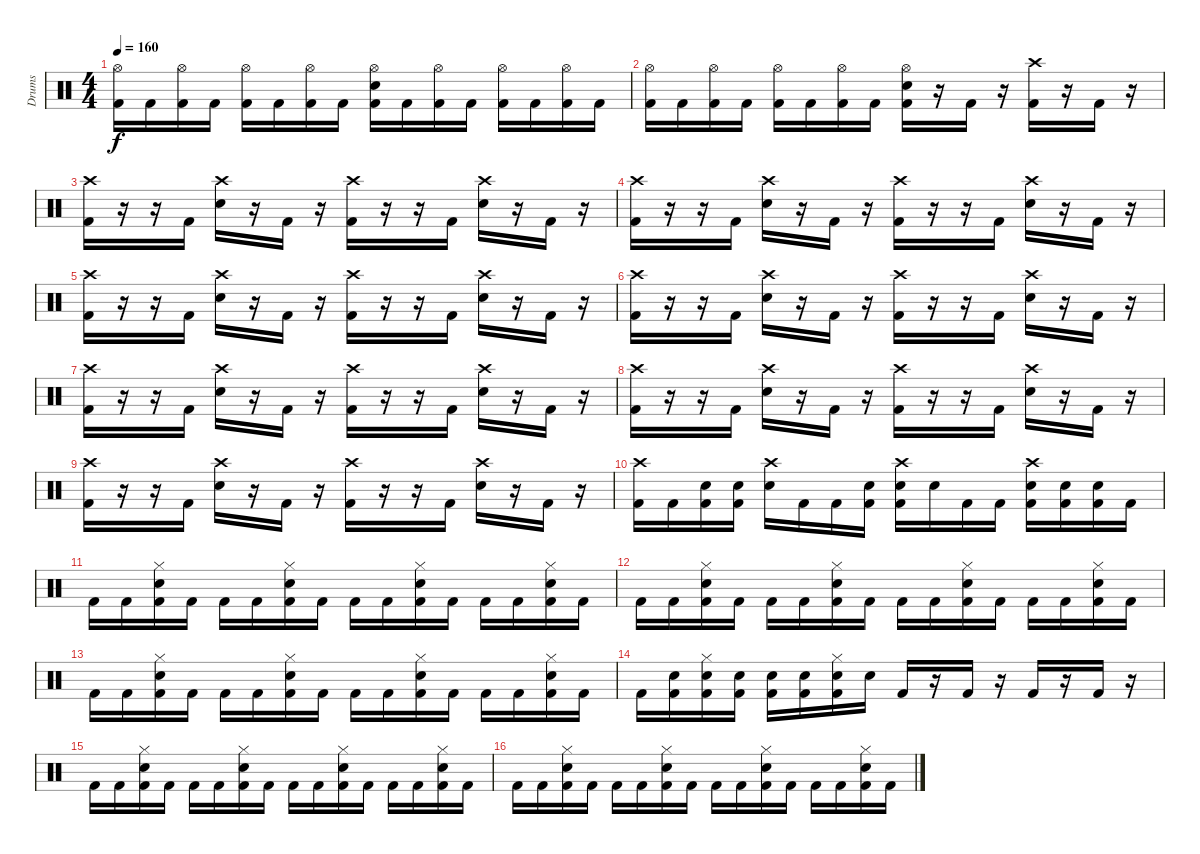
\track ("Drums" "Drums") {instrument percussion}
\staff {score}
\articulation defaults
\ts (4 4)
\tempo 160
\clef neutral
\ks c
("Hi-Hat (open)" "Kick (hit) 2").16{dy f} "Kick (hit) 2".16 ("Hi-Hat (open)" "Kick (hit) 2").16 "Kick (hit) 2".16 ("Hi-Hat (open)" "Kick (hit) 2").16 "Kick (hit) 2".16 ("Hi-Hat (open)" "Kick (hit) 2").16 "Kick (hit) 2".16 ("Hi-Hat (open)" "Electric Snare (hit)" "Kick (hit) 2").16 "Kick (hit) 2".16 ("Hi-Hat (open)" "Kick (hit) 2").16 "Kick (hit) 2".16 ("Hi-Hat (open)" "Kick (hit) 2").16 "Kick (hit) 2".16 ("Hi-Hat (open)" "Kick (hit) 2").16 "Kick (hit) 2".16 |
("Hi-Hat (open)" "Kick (hit) 2").16 "Kick (hit) 2".16 ("Hi-Hat (open)" "Kick (hit) 2").16 "Kick (hit) 2".16 ("Hi-Hat (open)" "Kick (hit) 2").16 "Kick (hit) 2".16 ("Hi-Hat (open)" "Kick (hit) 2").16 "Kick (hit) 2".16 ("Hi-Hat (open)" "Electric Snare (hit)" "Kick (hit) 2").16 r.16 "Kick (hit) 2".16 r.16 ("Crash high (hit)" "Kick (hit) 2").16 r.16 "Kick (hit) 2".16 r.16 |
("Crash high (hit)" "Kick (hit) 2").16 r.16 r.16 "Kick (hit) 2".16 ("Crash high (hit)" "Electric Snare (hit)").16 r.16 "Kick (hit) 2".16 r.16 ("Crash high (hit)" "Kick (hit) 2").16 r.16 r.16 "Kick (hit) 2".16 ("Crash high (hit)" "Electric Snare (hit)").16 r.16 "Kick (hit) 2".16 r.16 |
("Crash high (hit)" "Kick (hit) 2").16 r.16 r.16 "Kick (hit) 2".16 ("Crash high (hit)" "Electric Snare (hit)").16 r.16 "Kick (hit) 2".16 r.16 ("Crash high (hit)" "Kick (hit) 2").16 r.16 r.16 "Kick (hit) 2".16 ("Crash high (hit)" "Electric Snare (hit)").16 r.16 "Kick (hit) 2".16 r.16 |
("Crash high (hit)" "Kick (hit) 2").16 r.16 r.16 "Kick (hit) 2".16 ("Crash high (hit)" "Electric Snare (hit)").16 r.16 "Kick (hit) 2".16 r.16 ("Crash high (hit)" "Kick (hit) 2").16 r.16 r.16 "Kick (hit) 2".16 ("Crash high (hit)" "Electric Snare (hit)").16 r.16 "Kick (hit) 2".16 r.16 |
("Crash high (hit)" "Kick (hit) 2").16 r.16 r.16 "Kick (hit) 2".16 ("Crash high (hit)" "Electric Snare (hit)").16 r.16 "Kick (hit) 2".16 r.16 ("Crash high (hit)" "Kick (hit) 2").16 r.16 r.16 "Kick (hit) 2".16 ("Crash high (hit)" "Electric Snare (hit)").16 r.16 "Kick (hit) 2".16 r.16 |
("Crash high (hit)" "Kick (hit) 2").16 r.16 r.16 "Kick (hit) 2".16 ("Crash high (hit)" "Electric Snare (hit)").16 r.16 "Kick (hit) 2".16 r.16 ("Crash high (hit)" "Kick (hit) 2").16 r.16 r.16 "Kick (hit) 2".16 ("Crash high (hit)" "Electric Snare (hit)").16 r.16 "Kick (hit) 2".16 r.16 |
("Crash high (hit)" "Kick (hit) 2").16 r.16 r.16 "Kick (hit) 2".16 ("Crash high (hit)" "Electric Snare (hit)").16 r.16 "Kick (hit) 2".16 r.16 ("Crash high (hit)" "Kick (hit) 2").16 r.16 r.16 "Kick (hit) 2".16 ("Crash high (hit)" "Electric Snare (hit)").16 r.16 "Kick (hit) 2".16 r.16 |
("Crash high (hit)" "Kick (hit) 2").16 r.16 r.16 "Kick (hit) 2".16 ("Crash high (hit)" "Electric Snare (hit)").16 r.16 "Kick (hit) 2".16 r.16 ("Crash high (hit)" "Kick (hit) 2").16 r.16 r.16 "Kick (hit) 2".16 ("Crash high (hit)" "Electric Snare (hit)").16 r.16 "Kick (hit) 2".16 r.16 |
("Crash high (hit)" "Kick (hit) 2").16 "Kick (hit) 2".16 ("Electric Snare (hit)" "Kick (hit) 2").16 ("Electric Snare (hit)" "Kick (hit) 2").16 ("Crash high (hit)" "Electric Snare (hit)").16 "Kick (hit) 2".16 "Kick (hit) 2".16 ("Electric Snare (hit)" "Kick (hit) 2").16 ("Crash high (hit)" "Electric Snare (hit)" "Kick (hit) 2").16 "Electric Snare (hit)".16 "Kick (hit) 2".16 "Kick (hit) 2".16 ("Crash high (hit)" "Electric Snare (hit)" "Kick (hit) 2").16 ("Electric Snare (hit)" "Kick (hit) 2").16 ("Electric Snare (hit)" "Kick (hit) 2").16 "Kick (hit) 2".16 |
"Kick (hit) 2".16 "Kick (hit) 2".16 ("Hi-Hat (closed)" "Electric Snare (hit)" "Kick (hit) 2").16 "Kick (hit) 2".16 "Kick (hit) 2".16 "Kick (hit) 2".16 ("Hi-Hat (closed)" "Electric Snare (hit)" "Kick (hit) 2").16 "Kick (hit) 2".16 "Kick (hit) 2".16 "Kick (hit) 2".16 ("Hi-Hat (closed)" "Electric Snare (hit)" "Kick (hit) 2").16 "Kick (hit) 2".16 "Kick (hit) 2".16 "Kick (hit) 2".16 ("Hi-Hat (closed)" "Electric Snare (hit)" "Kick (hit) 2").16 "Kick (hit) 2".16 |
"Kick (hit) 2".16 "Kick (hit) 2".16 ("Hi-Hat (closed)" "Electric Snare (hit)" "Kick (hit) 2").16 "Kick (hit) 2".16 "Kick (hit) 2".16 "Kick (hit) 2".16 ("Hi-Hat (closed)" "Electric Snare (hit)" "Kick (hit) 2").16 "Kick (hit) 2".16 "Kick (hit) 2".16 "Kick (hit) 2".16 ("Hi-Hat (closed)" "Electric Snare (hit)" "Kick (hit) 2").16 "Kick (hit) 2".16 "Kick (hit) 2".16 "Kick (hit) 2".16 ("Hi-Hat (closed)" "Electric Snare (hit)" "Kick (hit) 2").16 "Kick (hit) 2".16 |
"Kick (hit) 2".16 "Kick (hit) 2".16 ("Hi-Hat (closed)" "Electric Snare (hit)" "Kick (hit) 2").16 "Kick (hit) 2".16 "Kick (hit) 2".16 "Kick (hit) 2".16 ("Hi-Hat (closed)" "Electric Snare (hit)" "Kick (hit) 2").16 "Kick (hit) 2".16 "Kick (hit) 2".16 "Kick (hit) 2".16 ("Hi-Hat (closed)" "Electric Snare (hit)" "Kick (hit) 2").16 "Kick (hit) 2".16 "Kick (hit) 2".16 "Kick (hit) 2".16 ("Hi-Hat (closed)" "Electric Snare (hit)" "Kick (hit) 2").16 "Kick (hit) 2".16 |
"Kick (hit) 2".16 ("Electric Snare (hit)" "Kick (hit) 2").16 ("Hi-Hat (closed)" "Electric Snare (hit)" "Kick (hit) 2").16 ("Electric Snare (hit)" "Kick (hit) 2").16 ("Electric Snare (hit)" "Kick (hit) 2").16 ("Electric Snare (hit)" "Kick (hit) 2").16 ("Hi-Hat (closed)" "Electric Snare (hit)" "Kick (hit) 2").16 "Electric Snare (hit)".16 "Kick (hit) 2".16 r.16 "Kick (hit) 2".16 r.16 "Kick (hit) 2".16 r.16 "Kick (hit) 2".16 r.16 |
"Kick (hit) 2".16 "Kick (hit) 2".16 ("Hi-Hat (closed)" "Electric Snare (hit)" "Kick (hit) 2").16 "Kick (hit) 2".16 "Kick (hit) 2".16 "Kick (hit) 2".16 ("Hi-Hat (closed)" "Electric Snare (hit)" "Kick (hit) 2").16 "Kick (hit) 2".16 "Kick (hit) 2".16 "Kick (hit) 2".16 ("Hi-Hat (closed)" "Electric Snare (hit)" "Kick (hit) 2").16 "Kick (hit) 2".16 "Kick (hit) 2".16 "Kick (hit) 2".16 ("Hi-Hat (closed)" "Electric Snare (hit)" "Kick (hit) 2").16 "Kick (hit) 2".16 |
"Kick (hit) 2".16 "Kick (hit) 2".16 ("Hi-Hat (closed)" "Electric Snare (hit)" "Kick (hit) 2").16 "Kick (hit) 2".16 "Kick (hit) 2".16 "Kick (hit) 2".16 ("Hi-Hat (closed)" "Electric Snare (hit)" "Kick (hit) 2").16 "Kick (hit) 2".16 "Kick (hit) 2".16 "Kick (hit) 2".16 ("Hi-Hat (closed)" "Electric Snare (hit)" "Kick (hit) 2").16 "Kick (hit) 2".16 "Kick (hit) 2".16 "Kick (hit) 2".16 ("Hi-Hat (closed)" "Electric Snare (hit)" "Kick (hit) 2").16 "Kick (hit) 2".16
